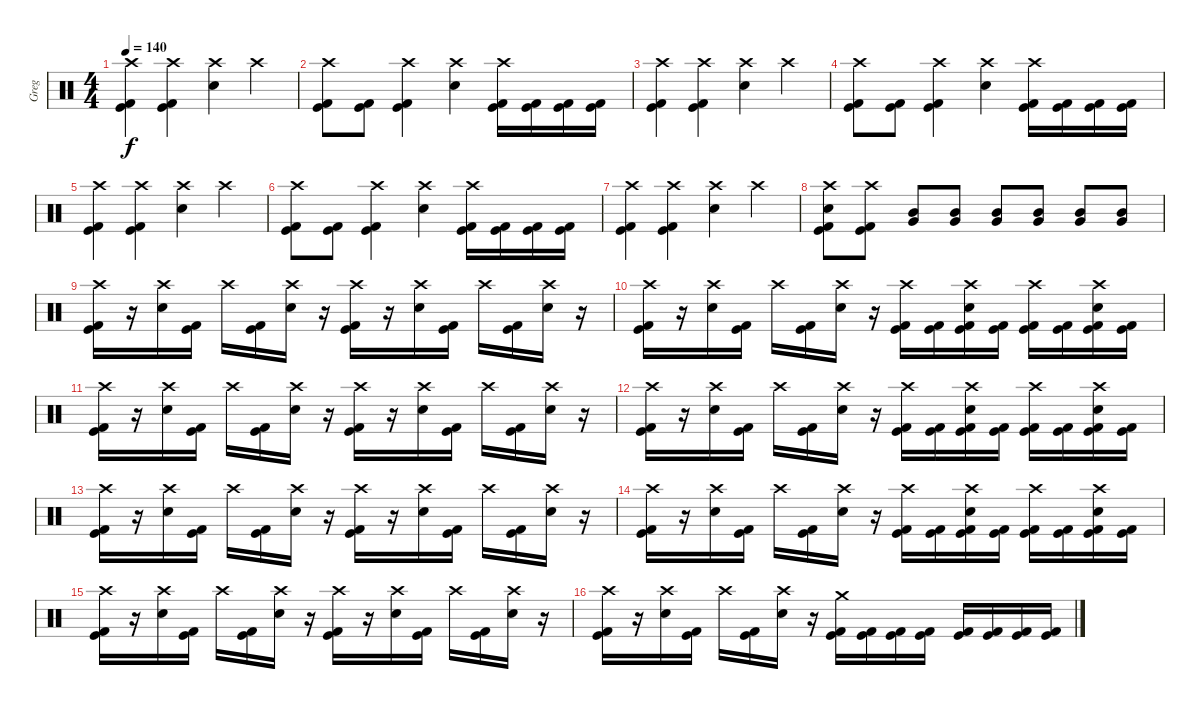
\track ("Greg" "Greg") {instrument percussion}
\staff {score}
\articulation defaults
\ts (4 4)
\tempo 140
\clef neutral
\ks c
("Crash high (hit)" "Kick (hit)" "Kick (hit) 2").4{dy f} ("Crash high (hit)" "Kick (hit)" "Kick (hit) 2").4 ("Crash high (hit)" "Snare (hit) 2").4 "Crash high (hit)".4 |
("Crash high (hit)" "Kick (hit)" "Kick (hit) 2").8 ("Kick (hit)" "Kick (hit) 2").8 ("Crash high (hit)" "Kick (hit)" "Kick (hit) 2").4 ("Crash high (hit)" "Snare (hit) 2").4 ("Crash high (hit)" "Kick (hit)" "Kick (hit) 2").16 ("Kick (hit)" "Kick (hit) 2").16 ("Kick (hit)" "Kick (hit) 2").16 ("Kick (hit)" "Kick (hit) 2").16 |
("Crash high (hit)" "Kick (hit)" "Kick (hit) 2").4 ("Crash high (hit)" "Kick (hit)" "Kick (hit) 2").4 ("Crash high (hit)" "Snare (hit) 2").4 "Crash high (hit)".4 |
("Crash high (hit)" "Kick (hit)" "Kick (hit) 2").8 ("Kick (hit)" "Kick (hit) 2").8 ("Crash high (hit)" "Kick (hit)" "Kick (hit) 2").4 ("Crash high (hit)" "Snare (hit) 2").4 ("Crash high (hit)" "Kick (hit)" "Kick (hit) 2").16 ("Kick (hit)" "Kick (hit) 2").16 ("Kick (hit)" "Kick (hit) 2").16 ("Kick (hit)" "Kick (hit) 2").16 |
("Crash high (hit)" "Kick (hit)" "Kick (hit) 2").4 ("Crash high (hit)" "Kick (hit)" "Kick (hit) 2").4 ("Crash high (hit)" "Snare (hit) 2").4 "Crash high (hit)".4 |
("Crash high (hit)" "Kick (hit)" "Kick (hit) 2").8 ("Kick (hit)" "Kick (hit) 2").8 ("Crash high (hit)" "Kick (hit)" "Kick (hit) 2").4 ("Crash high (hit)" "Snare (hit) 2").4 ("Crash high (hit)" "Kick (hit)" "Kick (hit) 2").16 ("Kick (hit)" "Kick (hit) 2").16 ("Kick (hit)" "Kick (hit) 2").16 ("Kick (hit)" "Kick (hit) 2").16 |
("Crash high (hit)" "Kick (hit)" "Kick (hit) 2").4 ("Crash high (hit)" "Kick (hit)" "Kick (hit) 2").4 ("Crash high (hit)" "Snare (hit) 2").4 "Crash high (hit)".4 |
("Crash high (hit)" "Snare (hit) 2" "Kick (hit)" "Kick (hit) 2").8 ("Crash high (hit)" "Kick (hit)" "Kick (hit) 2").8 ("Mid Tom (hit)" "Very Low Tom (hit)").8 ("Mid Tom (hit)" "Very Low Tom (hit)").8 ("Mid Tom (hit)" "Very Low Tom (hit)").8 ("Mid Tom (hit)" "Very Low Tom (hit)").8 ("Mid Tom (hit)" "Very Low Tom (hit)").8 ("Mid Tom (hit)" "Very Low Tom (hit)").8 |
("Crash high (hit)" "Kick (hit)" "Kick (hit) 2").16 r.16 ("Crash high (hit)" "Snare (hit) 2").16 ("Kick (hit)" "Kick (hit) 2").16 "Crash high (hit)".16 ("Kick (hit)" "Kick (hit) 2").16 ("Crash high (hit)" "Snare (hit) 2").16 r.16 ("Crash high (hit)" "Kick (hit)" "Kick (hit) 2").16 r.16 ("Crash high (hit)" "Snare (hit) 2").16 ("Kick (hit)" "Kick (hit) 2").16 "Crash high (hit)".16 ("Kick (hit)" "Kick (hit) 2").16 ("Crash high (hit)" "Snare (hit) 2").16 r.16 |
("Crash high (hit)" "Kick (hit)" "Kick (hit) 2").16 r.16 ("Crash high (hit)" "Snare (hit) 2").16 ("Kick (hit)" "Kick (hit) 2").16 "Crash high (hit)".16 ("Kick (hit)" "Kick (hit) 2").16 ("Crash high (hit)" "Snare (hit) 2").16 r.16 ("Crash high (hit)" "Kick (hit)" "Kick (hit) 2").16 ("Kick (hit)" "Kick (hit) 2").16 ("Crash high (hit)" "Snare (hit) 2" "Kick (hit)" "Kick (hit) 2").16 ("Kick (hit)" "Kick (hit) 2").16 ("Crash high (hit)" "Kick (hit)" "Kick (hit) 2").16 ("Kick (hit)" "Kick (hit) 2").16 ("Crash high (hit)" "Snare (hit) 2" "Kick (hit)" "Kick (hit) 2").16 ("Kick (hit)" "Kick (hit) 2").16 |
("Crash high (hit)" "Kick (hit)" "Kick (hit) 2").16 r.16 ("Crash high (hit)" "Snare (hit) 2").16 ("Kick (hit)" "Kick (hit) 2").16 "Crash high (hit)".16 ("Kick (hit)" "Kick (hit) 2").16 ("Crash high (hit)" "Snare (hit) 2").16 r.16 ("Crash high (hit)" "Kick (hit)" "Kick (hit) 2").16 r.16 ("Crash high (hit)" "Snare (hit) 2").16 ("Kick (hit)" "Kick (hit) 2").16 "Crash high (hit)".16 ("Kick (hit)" "Kick (hit) 2").16 ("Crash high (hit)" "Snare (hit) 2").16 r.16 |
("Crash high (hit)" "Kick (hit)" "Kick (hit) 2").16 r.16 ("Crash high (hit)" "Snare (hit) 2").16 ("Kick (hit)" "Kick (hit) 2").16 "Crash high (hit)".16 ("Kick (hit)" "Kick (hit) 2").16 ("Crash high (hit)" "Snare (hit) 2").16 r.16 ("Crash high (hit)" "Kick (hit)" "Kick (hit) 2").16 ("Kick (hit)" "Kick (hit) 2").16 ("Crash high (hit)" "Snare (hit) 2" "Kick (hit)" "Kick (hit) 2").16 ("Kick (hit)" "Kick (hit) 2").16 ("Crash high (hit)" "Kick (hit)" "Kick (hit) 2").16 ("Kick (hit)" "Kick (hit) 2").16 ("Crash high (hit)" "Snare (hit) 2" "Kick (hit)" "Kick (hit) 2").16 ("Kick (hit)" "Kick (hit) 2").16 |
("Crash high (hit)" "Kick (hit)" "Kick (hit) 2").16 r.16 ("Crash high (hit)" "Snare (hit) 2").16 ("Kick (hit)" "Kick (hit) 2").16 "Crash high (hit)".16 ("Kick (hit)" "Kick (hit) 2").16 ("Crash high (hit)" "Snare (hit) 2").16 r.16 ("Crash high (hit)" "Kick (hit)" "Kick (hit) 2").16 r.16 ("Crash high (hit)" "Snare (hit) 2").16 ("Kick (hit)" "Kick (hit) 2").16 "Crash high (hit)".16 ("Kick (hit)" "Kick (hit) 2").16 ("Crash high (hit)" "Snare (hit) 2").16 r.16 |
("Crash high (hit)" "Kick (hit)" "Kick (hit) 2").16 r.16 ("Crash high (hit)" "Snare (hit) 2").16 ("Kick (hit)" "Kick (hit) 2").16 "Crash high (hit)".16 ("Kick (hit)" "Kick (hit) 2").16 ("Crash high (hit)" "Snare (hit) 2").16 r.16 ("Crash high (hit)" "Kick (hit)" "Kick (hit) 2").16 ("Kick (hit)" "Kick (hit) 2").16 ("Crash high (hit)" "Snare (hit) 2" "Kick (hit)" "Kick (hit) 2").16 ("Kick (hit)" "Kick (hit) 2").16 ("Crash high (hit)" "Kick (hit)" "Kick (hit) 2").16 ("Kick (hit)" "Kick (hit) 2").16 ("Crash high (hit)" "Snare (hit) 2" "Kick (hit)" "Kick (hit) 2").16 ("Kick (hit)" "Kick (hit) 2").16 |
("Crash high (hit)" "Kick (hit)" "Kick (hit) 2").16 r.16 ("Crash high (hit)" "Snare (hit) 2").16 ("Kick (hit)" "Kick (hit) 2").16 "Crash high (hit)".16 ("Kick (hit)" "Kick (hit) 2").16 ("Crash high (hit)" "Snare (hit) 2").16 r.16 ("Crash high (hit)" "Kick (hit)" "Kick (hit) 2").16 r.16 ("Crash high (hit)" "Snare (hit) 2").16 ("Kick (hit)" "Kick (hit) 2").16 "Crash high (hit)".16 ("Kick (hit)" "Kick (hit) 2").16 ("Crash high (hit)" "Snare (hit) 2").16 r.16 |
("Crash high (hit)" "Kick (hit)" "Kick (hit) 2").16 r.16 ("Crash high (hit)" "Snare (hit) 2").16 ("Kick (hit)" "Kick (hit) 2").16 "Crash high (hit)".16 ("Kick (hit)" "Kick (hit) 2").16 ("Crash high (hit)" "Snare (hit) 2").16 r.16 ("Crash medium (hit)" "Kick (hit)" "Kick (hit) 2").16 ("Kick (hit)" "Kick (hit) 2").16 ("Kick (hit)" "Kick (hit) 2").16 ("Kick (hit)" "Kick (hit) 2").16 ("Kick (hit)" "Kick (hit) 2").16 ("Kick (hit)" "Kick (hit) 2").16 ("Kick (hit)" "Kick (hit) 2").16 ("Kick (hit)" "Kick (hit) 2").16
